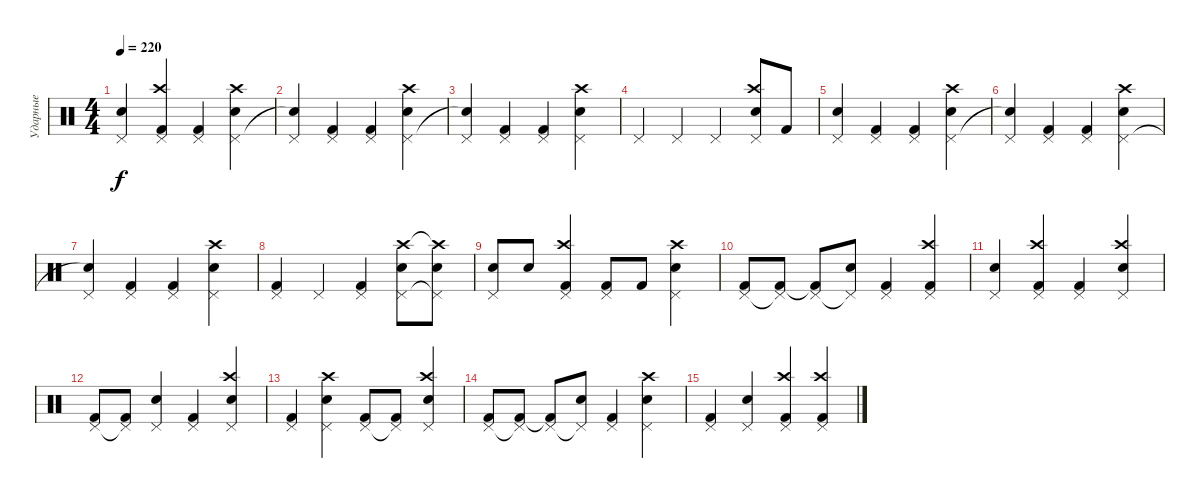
\track ("Ударные" "Ударные") {instrument percussion}
\staff {score}
\articulation defaults
\ts (4 4)
\tempo 220
\clef neutral
\ks c
("Pedal Hi-Hat (hit)" "Electric Snare (hit)").4{dy f} ("Crash high (hit)" "Pedal Hi-Hat (hit)" "Kick (hit) 2").4 ("Pedal Hi-Hat (hit)" "Kick (hit) 2").4 ("Crash high (hit)" "Pedal Hi-Hat (hit)" "Electric Snare (hit)").4 |
("Pedal Hi-Hat (hit)" "Electric Snare (hit)"{t}).4 ("Pedal Hi-Hat (hit)" "Kick (hit) 2").4 ("Pedal Hi-Hat (hit)" "Kick (hit) 2").4 ("Crash high (hit)" "Pedal Hi-Hat (hit)" "Electric Snare (hit)").4 |
("Pedal Hi-Hat (hit)" "Electric Snare (hit)"{t}).4 ("Pedal Hi-Hat (hit)" "Kick (hit) 2").4 ("Pedal Hi-Hat (hit)" "Kick (hit) 2").4 ("Crash high (hit)" "Pedal Hi-Hat (hit)" "Electric Snare (hit)").4 |
"Pedal Hi-Hat (hit)".4 "Pedal Hi-Hat (hit)".4 "Pedal Hi-Hat (hit)".4 ("Crash high (hit)" "Pedal Hi-Hat (hit)" "Snare (hit) 2").8 "Kick (hit) 2".8 |
("Pedal Hi-Hat (hit)" "Electric Snare (hit)").4 ("Pedal Hi-Hat (hit)" "Kick (hit) 2").4 ("Pedal Hi-Hat (hit)" "Kick (hit) 2").4 ("Crash high (hit)" "Pedal Hi-Hat (hit)" "Electric Snare (hit)").4 |
("Pedal Hi-Hat (hit)" "Electric Snare (hit)"{t}).4 ("Pedal Hi-Hat (hit)" "Kick (hit) 2").4 ("Pedal Hi-Hat (hit)" "Kick (hit) 2").4 ("Crash high (hit)" "Pedal Hi-Hat (hit)" "Electric Snare (hit)").4 |
("Pedal Hi-Hat (hit)" "Electric Snare (hit)"{t}).4 ("Pedal Hi-Hat (hit)" "Kick (hit) 2").4 ("Pedal Hi-Hat (hit)" "Kick (hit) 2").4 ("Crash high (hit)" "Pedal Hi-Hat (hit)" "Electric Snare (hit)").4 |
("Pedal Hi-Hat (hit)" "Kick (hit) 2").4 "Pedal Hi-Hat (hit)".4 ("Pedal Hi-Hat (hit)" "Kick (hit) 2").4 ("Crash high (hit)" "Pedal Hi-Hat (hit)" "Electric Snare (hit)").8 ("Crash high (hit)"{t} "Pedal Hi-Hat (hit)"{t} "Electric Snare (hit)").8 |
("Pedal Hi-Hat (hit)" "Snare (hit) 2").8 "Snare (hit) 2".8 ("Crash high (hit)" "Pedal Hi-Hat (hit)" "Kick (hit) 2").4 ("Pedal Hi-Hat (hit)" "Kick (hit) 2").8 "Kick (hit) 2".8 ("Crash high (hit)" "Pedal Hi-Hat (hit)" "Electric Snare (hit)").4 |
("Pedal Hi-Hat (hit)" "Kick (hit) 2").8 ("Pedal Hi-Hat (hit)"{t} "Kick (hit) 2").8 ("Pedal Hi-Hat (hit)" "Kick (hit) 2"{t}).8 ("Pedal Hi-Hat (hit)"{t} "Snare (hit) 2").8 ("Pedal Hi-Hat (hit)" "Kick (hit) 2").4 ("Crash high (hit)" "Pedal Hi-Hat (hit)" "Kick (hit) 2").4 |
("Pedal Hi-Hat (hit)" "Electric Snare (hit)").4 ("Crash high (hit)" "Pedal Hi-Hat (hit)" "Kick (hit) 2").4 ("Pedal Hi-Hat (hit)" "Kick (hit) 2").4 ("Crash high (hit)" "Pedal Hi-Hat (hit)" "Snare (hit) 2").4 |
("Pedal Hi-Hat (hit)" "Kick (hit) 2").8 ("Pedal Hi-Hat (hit)"{t} "Kick (hit) 2").8 ("Pedal Hi-Hat (hit)" "Electric Snare (hit)").4 ("Pedal Hi-Hat (hit)" "Kick (hit) 2").4 ("Crash high (hit)" "Pedal Hi-Hat (hit)" "Snare (hit) 2").4 |
("Pedal Hi-Hat (hit)" "Kick (hit) 2").4 ("Crash high (hit)" "Pedal Hi-Hat (hit)" "Electric Snare (hit)").4 ("Pedal Hi-Hat (hit)" "Kick (hit) 2").8 ("Pedal Hi-Hat (hit)"{t} "Kick (hit) 2").8 ("Crash high (hit)" "Pedal Hi-Hat (hit)" "Snare (hit) 2").4 |
("Pedal Hi-Hat (hit)" "Kick (hit) 2").8 ("Pedal Hi-Hat (hit)"{t} "Kick (hit) 2").8 ("Pedal Hi-Hat (hit)" "Kick (hit) 2"{t}).8 ("Pedal Hi-Hat (hit)"{t} "Snare (hit) 2").8 ("Pedal Hi-Hat (hit)" "Kick (hit) 2").4 ("Crash high (hit)" "Pedal Hi-Hat (hit)" "Electric Snare (hit)").4 |
("Pedal Hi-Hat (hit)" "Kick (hit) 2").4 ("Pedal Hi-Hat (hit)" "Electric Snare (hit)").4 ("Crash high (hit)" "Pedal Hi-Hat (hit)" "Kick (hit) 2").4 ("Crash high (hit)" "Pedal Hi-Hat (hit)" "Kick (hit) 2").4
